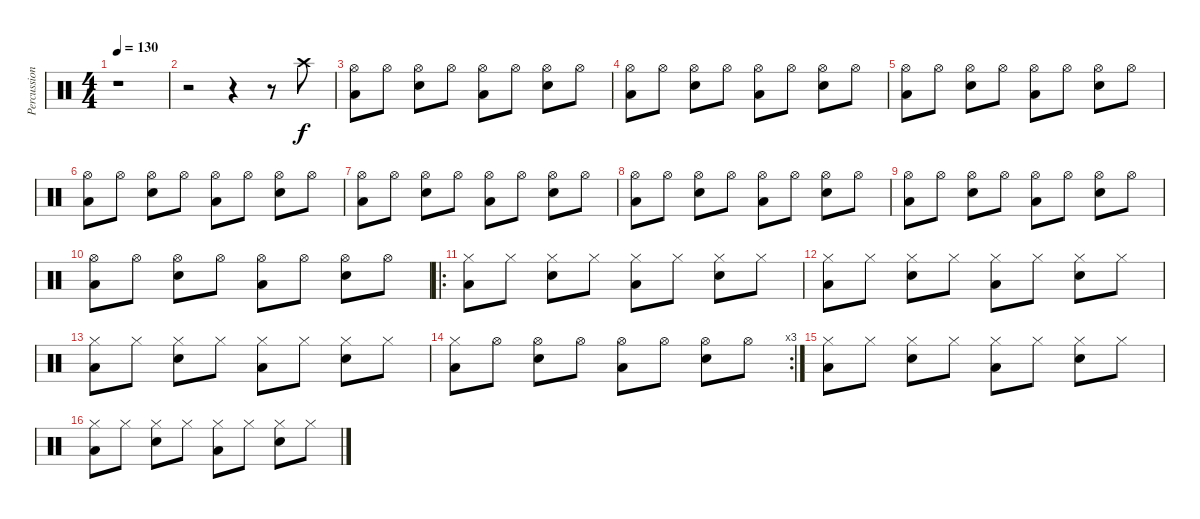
\track ("Percussion" "Percussion") {instrument percussion}
\staff {score}
\articulation defaults
\ts (4 4)
\tempo 130
\clef neutral
\ks c
r.1{dy f} |
r.2 r.4 r.8 "Crash high (hit)".8 |
("Hi-Hat (open)" "Low Floor Tom (hit)").8 "Hi-Hat (open)".8 ("Hi-Hat (open)" "Snare (hit) 2").8 "Hi-Hat (open)".8 ("Hi-Hat (open)" "Low Floor Tom (hit)").8 "Hi-Hat (open)".8 ("Hi-Hat (open)" "Snare (hit) 2").8 "Hi-Hat (open)".8 |
("Hi-Hat (open)" "Low Floor Tom (hit)").8 "Hi-Hat (open)".8 ("Hi-Hat (open)" "Snare (hit) 2").8 "Hi-Hat (open)".8 ("Hi-Hat (open)" "Low Floor Tom (hit)").8 "Hi-Hat (open)".8 ("Hi-Hat (open)" "Snare (hit) 2").8 "Hi-Hat (open)".8 |
("Hi-Hat (open)" "Low Floor Tom (hit)").8 "Hi-Hat (open)".8 ("Hi-Hat (open)" "Snare (hit) 2").8 "Hi-Hat (open)".8 ("Hi-Hat (open)" "Low Floor Tom (hit)").8 "Hi-Hat (open)".8 ("Hi-Hat (open)" "Snare (hit) 2").8 "Hi-Hat (open)".8 |
("Hi-Hat (open)" "Low Floor Tom (hit)").8 "Hi-Hat (open)".8 ("Hi-Hat (open)" "Snare (hit) 2").8 "Hi-Hat (open)".8 ("Hi-Hat (open)" "Low Floor Tom (hit)").8 "Hi-Hat (open)".8 ("Hi-Hat (open)" "Snare (hit) 2").8 "Hi-Hat (open)".8 |
("Hi-Hat (open)" "Low Floor Tom (hit)").8 "Hi-Hat (open)".8 ("Hi-Hat (open)" "Snare (hit) 2").8 "Hi-Hat (open)".8 ("Hi-Hat (open)" "Low Floor Tom (hit)").8 "Hi-Hat (open)".8 ("Hi-Hat (open)" "Snare (hit) 2").8 "Hi-Hat (open)".8 |
("Hi-Hat (open)" "Low Floor Tom (hit)").8 "Hi-Hat (open)".8 ("Hi-Hat (open)" "Snare (hit) 2").8 "Hi-Hat (open)".8 ("Hi-Hat (open)" "Low Floor Tom (hit)").8 "Hi-Hat (open)".8 ("Hi-Hat (open)" "Snare (hit) 2").8 "Hi-Hat (open)".8 |
("Hi-Hat (open)" "Low Floor Tom (hit)").8 "Hi-Hat (open)".8 ("Hi-Hat (open)" "Snare (hit) 2").8 "Hi-Hat (open)".8 ("Hi-Hat (open)" "Low Floor Tom (hit)").8 "Hi-Hat (open)".8 ("Hi-Hat (open)" "Snare (hit) 2").8 "Hi-Hat (open)".8 |
("Hi-Hat (open)" "Low Floor Tom (hit)").8 "Hi-Hat (open)".8 ("Hi-Hat (open)" "Snare (hit) 2").8 "Hi-Hat (open)".8 ("Hi-Hat (open)" "Low Floor Tom (hit)").8 "Hi-Hat (open)".8 ("Hi-Hat (open)" "Snare (hit) 2").8 "Hi-Hat (open)".8 |
\ro
("Hi-Hat (closed)" "Low Floor Tom (hit)").8 "Hi-Hat (closed)".8 ("Hi-Hat (closed)" "Snare (hit) 2").8 "Hi-Hat (closed)".8 ("Hi-Hat (closed)" "Low Floor Tom (hit)").8 "Hi-Hat (closed)".8 ("Hi-Hat (closed)" "Snare (hit) 2").8 "Hi-Hat (closed)".8 |
("Hi-Hat (closed)" "Low Floor Tom (hit)").8 "Hi-Hat (closed)".8 ("Hi-Hat (closed)" "Snare (hit) 2").8 "Hi-Hat (closed)".8 ("Hi-Hat (closed)" "Low Floor Tom (hit)").8 "Hi-Hat (closed)".8 ("Hi-Hat (closed)" "Snare (hit) 2").8 "Hi-Hat (closed)".8 |
("Hi-Hat (closed)" "Low Floor Tom (hit)").8 "Hi-Hat (closed)".8 ("Hi-Hat (closed)" "Snare (hit) 2").8 "Hi-Hat (closed)".8 ("Hi-Hat (closed)" "Low Floor Tom (hit)").8 "Hi-Hat (closed)".8 ("Hi-Hat (closed)" "Snare (hit) 2").8 "Hi-Hat (closed)".8 |
\rc 3
("Hi-Hat (closed)" "Low Floor Tom (hit)").8 "Hi-Hat (open)".8 ("Hi-Hat (open)" "Snare (hit) 2").8 "Hi-Hat (open)".8 ("Hi-Hat (open)" "Low Floor Tom (hit)").8 "Hi-Hat (open)".8 ("Hi-Hat (open)" "Snare (hit) 2").8 "Hi-Hat (open)".8 |
("Hi-Hat (closed)" "Low Floor Tom (hit)").8 "Hi-Hat (closed)".8 ("Hi-Hat (closed)" "Snare (hit) 2").8 "Hi-Hat (closed)".8 ("Hi-Hat (closed)" "Low Floor Tom (hit)").8 "Hi-Hat (closed)".8 ("Hi-Hat (closed)" "Snare (hit) 2").8 "Hi-Hat (closed)".8 |
("Hi-Hat (closed)" "Low Floor Tom (hit)").8 "Hi-Hat (closed)".8 ("Hi-Hat (closed)" "Snare (hit) 2").8 "Hi-Hat (closed)".8 ("Hi-Hat (closed)" "Low Floor Tom (hit)").8 "Hi-Hat (closed)".8 ("Hi-Hat (closed)" "Snare (hit) 2").8 "Hi-Hat (closed)".8
